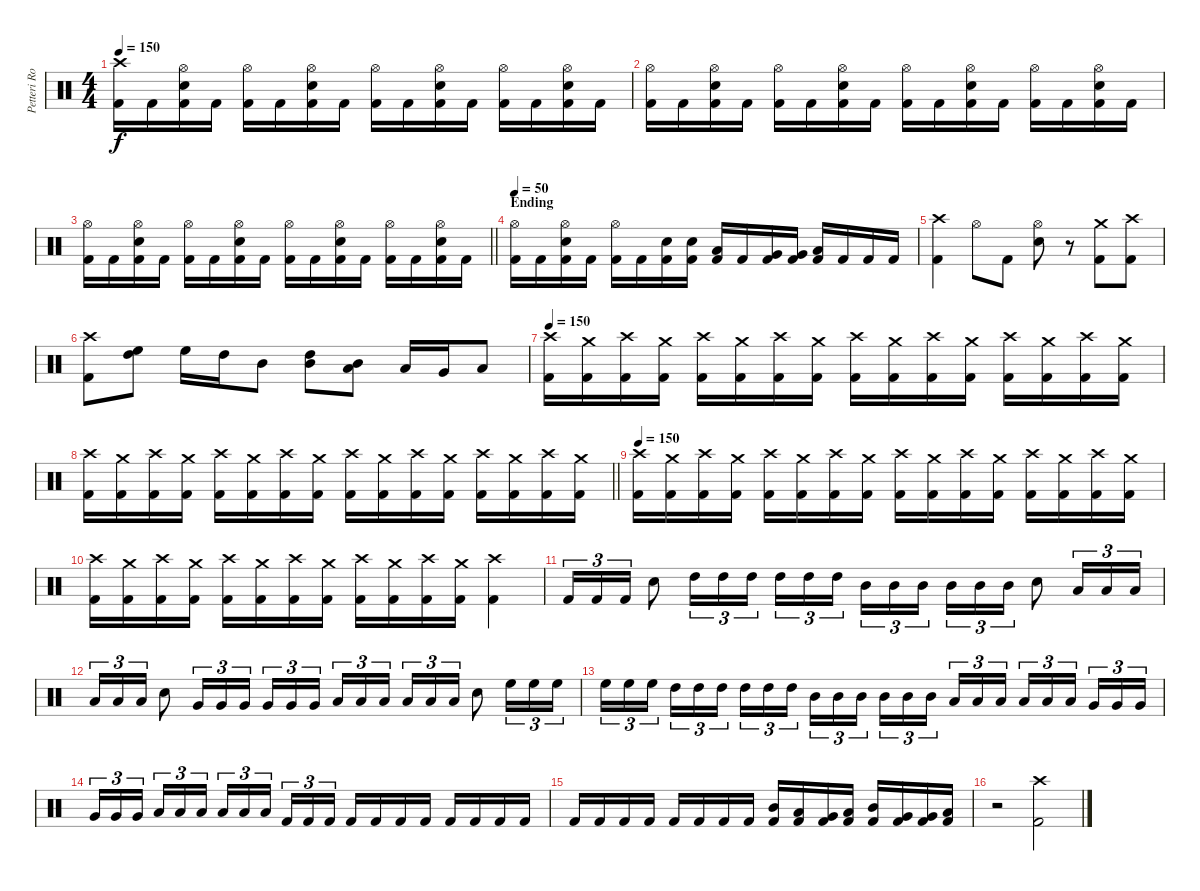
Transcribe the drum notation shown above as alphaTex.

\track ("Petteri Rosenbom" "Petteri Ro") {instrument percussion}
\staff {score}
\articulation defaults
\ts (4 4)
\tempo 150
\clef neutral
\ks c
("Crash high (hit)" "Kick (hit) 2").16{dy f} "Kick (hit) 2".16 ("Hi-Hat (open)" "Electric Snare (hit)" "Kick (hit) 2").16 "Kick (hit) 2".16 ("Hi-Hat (open)" "Kick (hit) 2").16 "Kick (hit) 2".16 ("Hi-Hat (open)" "Electric Snare (hit)" "Kick (hit) 2").16 "Kick (hit) 2".16 ("Hi-Hat (open)" "Kick (hit) 2").16 "Kick (hit) 2".16 ("Hi-Hat (open)" "Electric Snare (hit)" "Kick (hit) 2").16 "Kick (hit) 2".16 ("Hi-Hat (open)" "Kick (hit) 2").16 "Kick (hit) 2".16 ("Hi-Hat (open)" "Electric Snare (hit)" "Kick (hit) 2").16 "Kick (hit) 2".16 |
("Hi-Hat (open)" "Kick (hit) 2").16 "Kick (hit) 2".16 ("Hi-Hat (open)" "Electric Snare (hit)" "Kick (hit) 2").16 "Kick (hit) 2".16 ("Hi-Hat (open)" "Kick (hit) 2").16 "Kick (hit) 2".16 ("Hi-Hat (open)" "Electric Snare (hit)" "Kick (hit) 2").16 "Kick (hit) 2".16 ("Hi-Hat (open)" "Kick (hit) 2").16 "Kick (hit) 2".16 ("Hi-Hat (open)" "Electric Snare (hit)" "Kick (hit) 2").16 "Kick (hit) 2".16 ("Hi-Hat (open)" "Kick (hit) 2").16 "Kick (hit) 2".16 ("Hi-Hat (open)" "Electric Snare (hit)" "Kick (hit) 2").16 "Kick (hit) 2".16 |
\barLineRight lightlight
("Hi-Hat (open)" "Kick (hit) 2").16 "Kick (hit) 2".16 ("Hi-Hat (open)" "Electric Snare (hit)" "Kick (hit) 2").16 "Kick (hit) 2".16 ("Hi-Hat (open)" "Kick (hit) 2").16 "Kick (hit) 2".16 ("Hi-Hat (open)" "Electric Snare (hit)" "Kick (hit) 2").16 "Kick (hit) 2".16 ("Hi-Hat (open)" "Kick (hit) 2").16 "Kick (hit) 2".16 ("Hi-Hat (open)" "Electric Snare (hit)" "Kick (hit) 2").16 "Kick (hit) 2".16 ("Hi-Hat (open)" "Kick (hit) 2").16 "Kick (hit) 2".16 ("Hi-Hat (open)" "Electric Snare (hit)" "Kick (hit) 2").16 "Kick (hit) 2".16 |
\section ("" "Ending")
\tempo 50
("Hi-Hat (open)" "Kick (hit) 2").16 "Kick (hit) 2".16 ("Hi-Hat (open)" "Electric Snare (hit)" "Kick (hit) 2").16 "Kick (hit) 2".16 ("Hi-Hat (open)" "Kick (hit) 2").16 "Kick (hit) 2".16 ("Electric Snare (hit)" "Kick (hit) 2").16 ("Electric Snare (hit)" "Kick (hit) 2").16 ("Low Floor Tom (hit)" "Kick (hit) 2").16 "Kick (hit) 2".16 ("Very Low Tom (hit)" "Kick (hit) 2").16 ("Very Low Tom (hit)" "Kick (hit) 2").16 ("Low Tom (hit)" "Kick (hit) 2").16 "Kick (hit) 2".16 "Kick (hit) 2".16 "Kick (hit) 2".16 |
("Crash high (hit)" "Kick (hit) 2").4 "Hi-Hat (open)".8 "Kick (hit) 2".8 ("Hi-Hat (open)" "Electric Snare (hit)").8 r.8 ("Crash medium (hit)" "Kick (hit) 2").8 ("Crash high (hit)" "Kick (hit) 2").8 |
("Crash high (hit)" "Kick (hit) 2").8 ("High Tom (hit)" "High Floor Tom (hit)").8 "High Floor Tom (hit)".16 "High Tom (hit)".16 "Mid Tom (hit)".8 ("High Tom (hit)" "Mid Tom (hit)").8 ("Mid Tom (hit)" "Low Tom (hit)").8 "Low Tom (hit)".16 "Very Low Tom (hit)".16 "Low Floor Tom (hit)".8 |
\tempo 150
("Crash high (hit)" "Kick (hit) 2").16 ("Crash medium (hit)" "Kick (hit) 2").16 ("Crash high (hit)" "Kick (hit) 2").16 ("Crash medium (hit)" "Kick (hit) 2").16 ("Crash high (hit)" "Kick (hit) 2").16 ("Crash medium (hit)" "Kick (hit) 2").16 ("Crash high (hit)" "Kick (hit) 2").16 ("Crash medium (hit)" "Kick (hit) 2").16 ("Crash high (hit)" "Kick (hit) 2").16 ("Crash medium (hit)" "Kick (hit) 2").16 ("Crash high (hit)" "Kick (hit) 2").16 ("Crash medium (hit)" "Kick (hit) 2").16 ("Crash high (hit)" "Kick (hit) 2").16 ("Crash medium (hit)" "Kick (hit) 2").16 ("Crash high (hit)" "Kick (hit) 2").16 ("Crash medium (hit)" "Kick (hit) 2").16 |
\barLineRight lightlight
("Crash high (hit)" "Kick (hit) 2").16 ("Crash medium (hit)" "Kick (hit) 2").16 ("Crash high (hit)" "Kick (hit) 2").16 ("Crash medium (hit)" "Kick (hit) 2").16 ("Crash high (hit)" "Kick (hit) 2").16 ("Crash medium (hit)" "Kick (hit) 2").16 ("Crash high (hit)" "Kick (hit) 2").16 ("Crash medium (hit)" "Kick (hit) 2").16 ("Crash high (hit)" "Kick (hit) 2").16 ("Crash medium (hit)" "Kick (hit) 2").16 ("Crash high (hit)" "Kick (hit) 2").16 ("Crash medium (hit)" "Kick (hit) 2").16 ("Crash high (hit)" "Kick (hit) 2").16 ("Crash medium (hit)" "Kick (hit) 2").16 ("Crash high (hit)" "Kick (hit) 2").16 ("Crash medium (hit)" "Kick (hit) 2").16 |
\tempo 150
("Crash high (hit)" "Kick (hit) 2").16 ("Crash medium (hit)" "Kick (hit) 2").16 ("Crash high (hit)" "Kick (hit) 2").16 ("Crash medium (hit)" "Kick (hit) 2").16 ("Crash high (hit)" "Kick (hit) 2").16 ("Crash medium (hit)" "Kick (hit) 2").16 ("Crash high (hit)" "Kick (hit) 2").16 ("Crash medium (hit)" "Kick (hit) 2").16 ("Crash high (hit)" "Kick (hit) 2").16 ("Crash medium (hit)" "Kick (hit) 2").16 ("Crash high (hit)" "Kick (hit) 2").16 ("Crash medium (hit)" "Kick (hit) 2").16 ("Crash high (hit)" "Kick (hit) 2").16 ("Crash medium (hit)" "Kick (hit) 2").16 ("Crash high (hit)" "Kick (hit) 2").16 ("Crash medium (hit)" "Kick (hit) 2").16 |
("Crash high (hit)" "Kick (hit) 2").16 ("Crash medium (hit)" "Kick (hit) 2").16 ("Crash high (hit)" "Kick (hit) 2").16 ("Crash medium (hit)" "Kick (hit) 2").16 ("Crash high (hit)" "Kick (hit) 2").16 ("Crash medium (hit)" "Kick (hit) 2").16 ("Crash high (hit)" "Kick (hit) 2").16 ("Crash medium (hit)" "Kick (hit) 2").16 ("Crash high (hit)" "Kick (hit) 2").16 ("Crash medium (hit)" "Kick (hit) 2").16 ("Crash high (hit)" "Kick (hit) 2").16 ("Crash medium (hit)" "Kick (hit) 2").16 ("Crash high (hit)" "Kick (hit) 2").4 |
"Kick (hit) 2".16{tu (3 2)} "Kick (hit) 2".16{tu (3 2)} "Kick (hit) 2".16{tu (3 2)} "Electric Snare (hit)".8 "High Tom (hit)".16{tu (3 2)} "High Tom (hit)".16{tu (3 2)} "High Tom (hit)".16{tu (3 2) beam splitsecondary} "High Tom (hit)".16{tu (3 2)} "High Tom (hit)".16{tu (3 2)} "High Tom (hit)".16{tu (3 2)} "Mid Tom (hit)".16{tu (3 2)} "Mid Tom (hit)".16{tu (3 2)} "Mid Tom (hit)".16{tu (3 2) beam splitsecondary} "Mid Tom (hit)".16{tu (3 2)} "Mid Tom (hit)".16{tu (3 2)} "Mid Tom (hit)".16{tu (3 2)} "Electric Snare (hit)".8 "Low Tom (hit)".16{tu (3 2)} "Low Tom (hit)".16{tu (3 2)} "Low Tom (hit)".16{tu (3 2)} |
"Low Tom (hit)".16{tu (3 2)} "Low Tom (hit)".16{tu (3 2)} "Low Tom (hit)".16{tu (3 2)} "Electric Snare (hit)".8 "Very Low Tom (hit)".16{tu (3 2)} "Very Low Tom (hit)".16{tu (3 2)} "Very Low Tom (hit)".16{tu (3 2) beam splitsecondary} "Very Low Tom (hit)".16{tu (3 2)} "Very Low Tom (hit)".16{tu (3 2)} "Very Low Tom (hit)".16{tu (3 2)} "Low Floor Tom (hit)".16{tu (3 2)} "Low Floor Tom (hit)".16{tu (3 2)} "Low Floor Tom (hit)".16{tu (3 2) beam splitsecondary} "Low Floor Tom (hit)".16{tu (3 2)} "Low Floor Tom (hit)".16{tu (3 2)} "Low Floor Tom (hit)".16{tu (3 2)} "Electric Snare (hit)".8 "High Floor Tom (hit)".16{tu (3 2)} "High Floor Tom (hit)".16{tu (3 2)} "High Floor Tom (hit)".16{tu (3 2)} |
"High Floor Tom (hit)".16{tu (3 2)} "High Floor Tom (hit)".16{tu (3 2)} "High Floor Tom (hit)".16{tu (3 2) beam splitsecondary} "High Tom (hit)".16{tu (3 2)} "High Tom (hit)".16{tu (3 2)} "High Tom (hit)".16{tu (3 2)} "High Tom (hit)".16{tu (3 2)} "High Tom (hit)".16{tu (3 2)} "High Tom (hit)".16{tu (3 2) beam splitsecondary} "Mid Tom (hit)".16{tu (3 2)} "Mid Tom (hit)".16{tu (3 2)} "Mid Tom (hit)".16{tu (3 2)} "Mid Tom (hit)".16{tu (3 2)} "Mid Tom (hit)".16{tu (3 2)} "Mid Tom (hit)".16{tu (3 2) beam splitsecondary} "Low Tom (hit)".16{tu (3 2)} "Low Tom (hit)".16{tu (3 2)} "Low Tom (hit)".16{tu (3 2)} "Low Tom (hit)".16{tu (3 2)} "Low Tom (hit)".16{tu (3 2)} "Low Tom (hit)".16{tu (3 2) beam splitsecondary} "Very Low Tom (hit)".16{tu (3 2)} "Very Low Tom (hit)".16{tu (3 2)} "Very Low Tom (hit)".16{tu (3 2)} |
"Very Low Tom (hit)".16{tu (3 2)} "Very Low Tom (hit)".16{tu (3 2)} "Very Low Tom (hit)".16{tu (3 2) beam splitsecondary} "Low Floor Tom (hit)".16{tu (3 2)} "Low Floor Tom (hit)".16{tu (3 2)} "Low Floor Tom (hit)".16{tu (3 2)} "Low Floor Tom (hit)".16{tu (3 2)} "Low Floor Tom (hit)".16{tu (3 2)} "Low Floor Tom (hit)".16{tu (3 2) beam splitsecondary} "Kick (hit) 2".16{tu (3 2)} "Kick (hit) 2".16{tu (3 2)} "Kick (hit) 2".16{tu (3 2)} "Kick (hit) 2".16 "Kick (hit) 2".16 "Kick (hit) 2".16 "Kick (hit) 2".16 "Kick (hit) 2".16 "Kick (hit) 2".16 "Kick (hit) 2".16 "Kick (hit) 2".16 |
"Kick (hit) 2".16 "Kick (hit) 2".16 "Kick (hit) 2".16 "Kick (hit) 2".16 "Kick (hit) 2".16 "Kick (hit) 2".16 "Kick (hit) 2".16 "Kick (hit) 2".16 ("Mid Tom (hit)" "Kick (hit) 2").16 ("Low Tom (hit)" "Kick (hit) 2").16 ("Very Low Tom (hit)" "Kick (hit) 2").16 ("Low Floor Tom (hit)" "Kick (hit) 2").16 ("Mid Tom (hit)" "Kick (hit) 2").16 ("Very Low Tom (hit)" "Kick (hit) 2").16 ("Very Low Tom (hit)" "Kick (hit) 2").16 ("Low Floor Tom (hit)" "Kick (hit) 2").16 |
r.2 ("Crash high (hit)" "Kick (hit) 2").2
